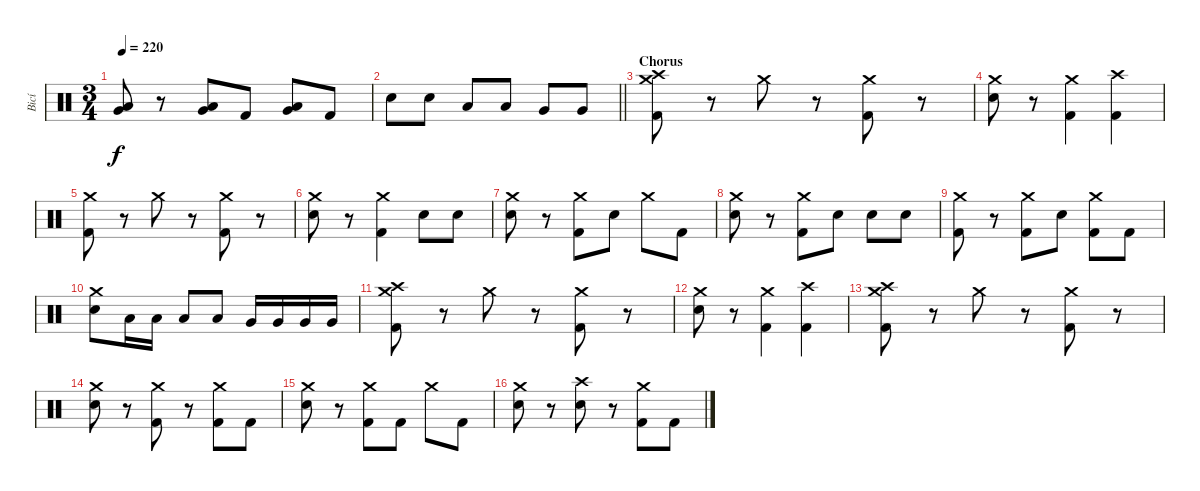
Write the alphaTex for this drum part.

\track ("Bicí" "Bicí") {instrument percussion}
\staff {score}
\articulation defaults
\ts (3 4)
\tempo 220
\clef neutral
\ks c
("Low Tom (hit)" "Very Low Tom (hit)").8{dy f} r.8 ("Low Tom (hit)" "Very Low Tom (hit)").8 "Kick (hit) 2".8 ("Low Tom (hit)" "Very Low Tom (hit)").8 "Kick (hit) 2".8 |
\barLineRight lightlight "Electric Snare (hit)".8 "Electric Snare (hit)".8 "Low Tom (hit)".8 "Low Tom (hit)".8 "Very Low Tom (hit)".8 "Very Low Tom (hit)".8
|
\section ("" "Chorus")
("Crash medium (hit)" "Crash high (hit)" "Kick (hit) 2").8 r.8 "Crash medium (hit)".8 r.8 ("Crash medium (hit)" "Kick (hit) 2").8 r.8 |
("Crash medium (hit)" "Electric Snare (hit)").8 r.8 ("Crash medium (hit)" "Kick (hit) 2").4 ("Crash high (hit)" "Kick (hit) 2").4 |
("Crash medium (hit)" "Kick (hit) 2").8 r.8 "Crash medium (hit)".8 r.8 ("Crash medium (hit)" "Kick (hit) 2").8 r.8 |
("Crash medium (hit)" "Electric Snare (hit)").8 r.8 ("Crash medium (hit)" "Kick (hit) 2").4 "Electric Snare (hit)".8 "Electric Snare (hit)".8 |
("Crash medium (hit)" "Electric Snare (hit)").8 r.8 ("Crash medium (hit)" "Kick (hit) 2").8 "Electric Snare (hit)".8 "Crash medium (hit)".8 "Kick (hit) 2".8 |
("Crash medium (hit)" "Electric Snare (hit)").8 r.8 ("Crash medium (hit)" "Kick (hit) 2").8 "Electric Snare (hit)".8 "Electric Snare (hit)".8 "Electric Snare (hit)".8 |
("Crash medium (hit)" "Kick (hit) 2").8 r.8 ("Crash medium (hit)" "Kick (hit) 2").8 "Electric Snare (hit)".8 ("Crash medium (hit)" "Kick (hit) 2").8 "Kick (hit) 2".8 |
("Crash medium (hit)" "Electric Snare (hit)").8 "Low Tom (hit)".16 "Low Tom (hit)".16 "Low Tom (hit)".8 "Low Tom (hit)".8 "Very Low Tom (hit)".16 "Very Low Tom (hit)".16 "Very Low Tom (hit)".16 "Very Low Tom (hit)".16 |
("Crash medium (hit)" "Crash high (hit)" "Kick (hit) 2").8 r.8 "Crash medium (hit)".8 r.8 ("Crash medium (hit)" "Kick (hit) 2").8 r.8 |
("Crash medium (hit)" "Electric Snare (hit)").8 r.8 ("Crash medium (hit)" "Kick (hit) 2").4 ("Crash high (hit)" "Kick (hit) 2").4 |
("Crash medium (hit)" "Crash high (hit)" "Kick (hit) 2").8 r.8 "Crash medium (hit)".8 r.8 ("Crash medium (hit)" "Kick (hit) 2").8 r.8 |
("Crash medium (hit)" "Electric Snare (hit)").8 r.8 ("Crash medium (hit)" "Kick (hit) 2").8 r.8 ("Crash medium (hit)" "Kick (hit) 2").8 "Kick (hit) 2".8 |
("Crash medium (hit)" "Electric Snare (hit)").8 r.8 ("Crash medium (hit)" "Kick (hit) 2").8 "Kick (hit) 2".8 "Crash medium (hit)".8 "Kick (hit) 2".8 |
("Crash medium (hit)" "Electric Snare (hit)").8 r.8 ("Crash high (hit)" "Electric Snare (hit)").8 r.8 ("Crash medium (hit)" "Kick (hit) 2").8 "Kick (hit) 2".8
